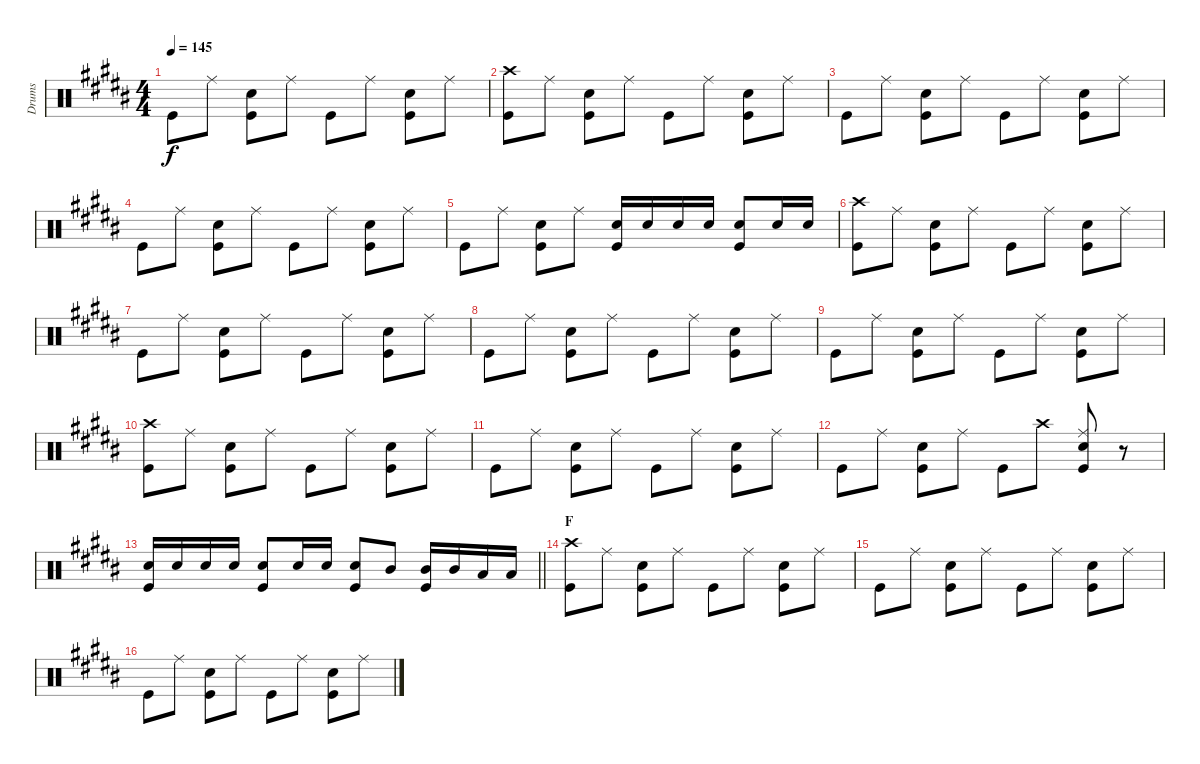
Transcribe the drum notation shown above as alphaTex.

\track ("Drums" "Drums") {instrument percussion}
\staff {score}
\articulation defaults
\ts (4 4)
\tempo 145
\clef neutral
\ks b "Kick (hit)".8{dy f} "Ride (middle)".8
("Snare (hit) 2" "Kick (hit)").8 "Ride (middle)".8 "Kick (hit)".8 "Ride (middle)".8 ("Snare (hit) 2" "Kick (hit)").8 "Ride (middle)".8 |
("Crash high (hit)" "Kick (hit)").8 "Ride (middle)".8 ("Snare (hit) 2" "Kick (hit)").8 "Ride (middle)".8 "Kick (hit)".8 "Ride (middle)".8 ("Snare (hit) 2" "Kick (hit)").8 "Ride (middle)".8 |
"Kick (hit)".8 "Ride (middle)".8 ("Snare (hit) 2" "Kick (hit)").8 "Ride (middle)".8 "Kick (hit)".8 "Ride (middle)".8 ("Snare (hit) 2" "Kick (hit)").8 "Ride (middle)".8 |
"Kick (hit)".8 "Ride (middle)".8 ("Snare (hit) 2" "Kick (hit)").8 "Ride (middle)".8 "Kick (hit)".8 "Ride (middle)".8 ("Snare (hit) 2" "Kick (hit)").8 "Ride (middle)".8 |
"Kick (hit)".8 "Ride (middle)".8 ("Snare (hit) 2" "Kick (hit)").8 "Ride (middle)".8 ("Snare (hit) 2" "Kick (hit)").16 "Snare (hit) 2".16 "Snare (hit) 2".16 "Snare (hit) 2".16 ("Snare (hit) 2" "Kick (hit)").8 "Snare (hit) 2".16 "Snare (hit) 2".16 |
("Crash high (hit)" "Kick (hit)").8 "Ride (middle)".8 ("Snare (hit) 2" "Kick (hit)").8 "Ride (middle)".8 "Kick (hit)".8 "Ride (middle)".8 ("Snare (hit) 2" "Kick (hit)").8 "Ride (middle)".8 |
"Kick (hit)".8 "Ride (middle)".8 ("Snare (hit) 2" "Kick (hit)").8 "Ride (middle)".8 "Kick (hit)".8 "Ride (middle)".8 ("Snare (hit) 2" "Kick (hit)").8 "Ride (middle)".8 |
"Kick (hit)".8 "Ride (middle)".8 ("Snare (hit) 2" "Kick (hit)").8 "Ride (middle)".8 "Kick (hit)".8 "Ride (middle)".8 ("Snare (hit) 2" "Kick (hit)").8 "Ride (middle)".8 |
"Kick (hit)".8 "Ride (middle)".8 ("Snare (hit) 2" "Kick (hit)").8 "Ride (middle)".8 "Kick (hit)".8 "Ride (middle)".8 ("Snare (hit) 2" "Kick (hit)").8 "Ride (middle)".8 |
("Crash high (hit)" "Kick (hit)").8 "Ride (middle)".8 ("Snare (hit) 2" "Kick (hit)").8 "Ride (middle)".8 "Kick (hit)".8 "Ride (middle)".8 ("Snare (hit) 2" "Kick (hit)").8 "Ride (middle)".8 |
"Kick (hit)".8 "Ride (middle)".8 ("Snare (hit) 2" "Kick (hit)").8 "Ride (middle)".8 "Kick (hit)".8 "Ride (middle)".8 ("Snare (hit) 2" "Kick (hit)").8 "Ride (middle)".8 |
"Kick (hit)".8 "Ride (middle)".8 ("Snare (hit) 2" "Kick (hit)").8 "Ride (middle)".8 "Kick (hit)".8 "Crash high (hit)".8 ("Ride (middle)" "Snare (hit) 2" "Kick (hit)").8 r.8 |
\barLineRight lightlight
("Snare (hit) 2" "Kick (hit)").16 "Snare (hit) 2".16 "Snare (hit) 2".16 "Snare (hit) 2".16 ("Snare (hit) 2" "Kick (hit)").8 "Snare (hit) 2".16 "Snare (hit) 2".16 ("Snare (hit) 2" "Kick (hit)").8 "Mid Tom (hit)".8 ("Mid Tom (hit)" "Kick (hit)").16 "Mid Tom (hit)".16 "Low Tom (hit)".16 "Low Tom (hit)".16 |
\section ("" "F")
("Crash high (hit)" "Kick (hit)").8 "Ride (middle)".8 ("Snare (hit) 2" "Kick (hit)").8 "Ride (middle)".8 "Kick (hit)".8 "Ride (middle)".8 ("Snare (hit) 2" "Kick (hit)").8 "Ride (middle)".8 |
"Kick (hit)".8 "Ride (middle)".8 ("Snare (hit) 2" "Kick (hit)").8 "Ride (middle)".8 "Kick (hit)".8 "Ride (middle)".8 ("Snare (hit) 2" "Kick (hit)").8 "Ride (middle)".8 |
"Kick (hit)".8 "Ride (middle)".8 ("Snare (hit) 2" "Kick (hit)").8 "Ride (middle)".8 "Kick (hit)".8 "Ride (middle)".8 ("Snare (hit) 2" "Kick (hit)").8 "Ride (middle)".8
